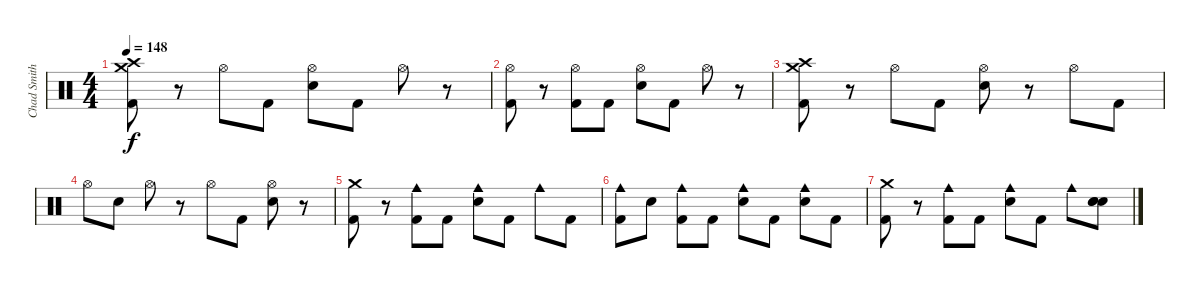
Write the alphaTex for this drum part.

\track ("Chad Smith" "Chad Smith") {instrument percussion}
\staff {score}
\articulation defaults
\ts (4 4)
\tempo 148
\clef neutral
\ks c
("Crash medium (hit)" "Crash high (hit)" "Kick (hit) 2").8{dy f} r.8 "Hi-Hat (open)".8 "Kick (hit) 2".8 ("Hi-Hat (open)" "Snare (hit) 2").8 "Kick (hit) 2".8 "Hi-Hat (open)".8 r.8 |
("Hi-Hat (open)" "Kick (hit) 2").8 r.8 ("Hi-Hat (open)" "Kick (hit) 2").8 "Kick (hit) 2".8 ("Hi-Hat (open)" "Snare (hit) 2").8 "Kick (hit) 2".8 "Hi-Hat (open)".8 r.8 |
("Crash medium (hit)" "Crash high (hit)" "Kick (hit) 2").8 r.8 "Hi-Hat (open)".8 "Kick (hit) 2".8 ("Hi-Hat (open)" "Snare (hit) 2").8 r.8 "Hi-Hat (open)".8 "Kick (hit) 2".8 |
"Hi-Hat (open)".8 "Snare (hit) 2".8 "Hi-Hat (open)".8 r.8 "Hi-Hat (open)".8 "Kick (hit) 2".8 ("Hi-Hat (open)" "Snare (hit) 2").8 r.8 |
("Crash medium (hit)" "Kick (hit) 2").8 r.8 ("Cowbell medium (hit)" "Kick (hit) 2").8 "Kick (hit) 2".8 ("Cowbell medium (hit)" "Snare (hit) 2").8 "Kick (hit) 2".8 "Cowbell medium (hit)".8 "Kick (hit) 2".8 |
("Cowbell medium (hit)" "Kick (hit) 2").8 "Snare (hit) 2".8 ("Cowbell medium (hit)" "Kick (hit) 2").8 "Kick (hit) 2".8 ("Cowbell medium (hit)" "Snare (hit) 2").8 "Kick (hit) 2".8 ("Cowbell medium (hit)" "Snare (hit) 2").8 "Kick (hit) 2".8 |
("Crash medium (hit)" "Kick (hit) 2").8 r.8 ("Cowbell medium (hit)" "Kick (hit) 2").8 "Kick (hit) 2".8 ("Cowbell medium (hit)" "Snare (hit) 2").8 "Kick (hit) 2".8 "Cowbell medium (hit)".8 ("Snare (hit) 2" "Snare (hit) 2" "Snare (hit) 2").8
